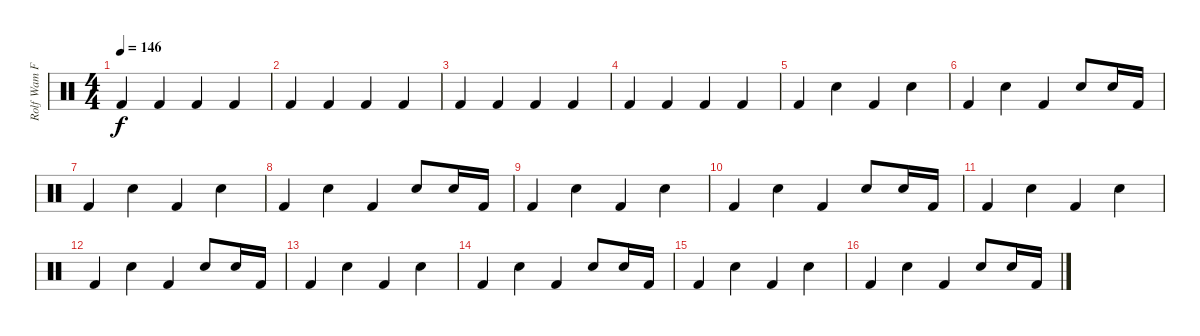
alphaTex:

\track ("Rolf Wam Fjell" "Rolf Wam F") {instrument percussion}
\staff {score}
\articulation defaults
\ts (4 4)
\tempo 146
\clef neutral
\ks c "Kick (hit) 2".4{dy f} "Kick (hit) 2".4 "Kick (hit) 2".4 "Kick (hit) 2".4
|
"Kick (hit) 2".4 "Kick (hit) 2".4 "Kick (hit) 2".4 "Kick (hit) 2".4 |
"Kick (hit) 2".4 "Kick (hit) 2".4 "Kick (hit) 2".4 "Kick (hit) 2".4 |
"Kick (hit) 2".4 "Kick (hit) 2".4 "Kick (hit) 2".4 "Kick (hit) 2".4 |
"Kick (hit) 2".4 "Electric Snare (hit)".4 "Kick (hit) 2".4 "Electric Snare (hit)".4 |
"Kick (hit) 2".4 "Electric Snare (hit)".4 "Kick (hit) 2".4 "Electric Snare (hit)".8 "Electric Snare (hit)".16 "Kick (hit) 2".16 |
"Kick (hit) 2".4 "Electric Snare (hit)".4 "Kick (hit) 2".4 "Electric Snare (hit)".4 |
"Kick (hit) 2".4 "Electric Snare (hit)".4 "Kick (hit) 2".4 "Electric Snare (hit)".8 "Electric Snare (hit)".16 "Kick (hit) 2".16 |
"Kick (hit) 2".4 "Electric Snare (hit)".4 "Kick (hit) 2".4 "Electric Snare (hit)".4 |
"Kick (hit) 2".4 "Electric Snare (hit)".4 "Kick (hit) 2".4 "Electric Snare (hit)".8 "Electric Snare (hit)".16 "Kick (hit) 2".16 |
"Kick (hit) 2".4 "Electric Snare (hit)".4 "Kick (hit) 2".4 "Electric Snare (hit)".4 |
"Kick (hit) 2".4 "Electric Snare (hit)".4 "Kick (hit) 2".4 "Electric Snare (hit)".8 "Electric Snare (hit)".16 "Kick (hit) 2".16 |
"Kick (hit) 2".4 "Electric Snare (hit)".4 "Kick (hit) 2".4 "Electric Snare (hit)".4 |
"Kick (hit) 2".4 "Electric Snare (hit)".4 "Kick (hit) 2".4 "Electric Snare (hit)".8 "Electric Snare (hit)".16 "Kick (hit) 2".16 |
"Kick (hit) 2".4 "Electric Snare (hit)".4 "Kick (hit) 2".4 "Electric Snare (hit)".4 |
"Kick (hit) 2".4 "Electric Snare (hit)".4 "Kick (hit) 2".4 "Electric Snare (hit)".8 "Electric Snare (hit)".16 "Kick (hit) 2".16
